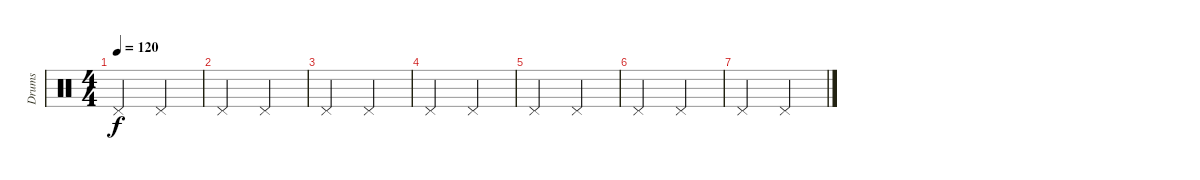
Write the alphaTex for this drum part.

\track ("Drums" "Drums") {instrument percussion}
\staff {score}
\articulation defaults
\ts (4 4)
\tempo 120
\clef neutral
\ks c "Pedal Hi-Hat (hit)".2{dy f} "Pedal Hi-Hat (hit)".2
|
"Pedal Hi-Hat (hit)".2 "Pedal Hi-Hat (hit)".2 |
"Pedal Hi-Hat (hit)".2 "Pedal Hi-Hat (hit)".2 |
"Pedal Hi-Hat (hit)".2 "Pedal Hi-Hat (hit)".2 |
"Pedal Hi-Hat (hit)".2 "Pedal Hi-Hat (hit)".2 |
"Pedal Hi-Hat (hit)".2 "Pedal Hi-Hat (hit)".2 |
"Pedal Hi-Hat (hit)".2 "Pedal Hi-Hat (hit)".2
